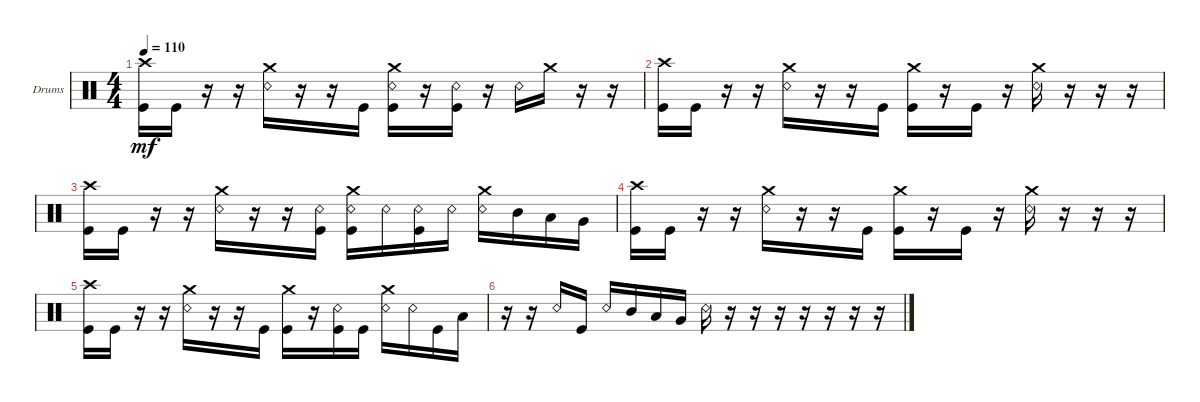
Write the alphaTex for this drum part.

\defaultSystemsLayout 4
\bracketExtendMode groupsimilarinstruments
\firstSystemTrackNameOrientation horizontal
\otherSystemsTrackNameOrientation horizontal
\track ("Drumkit" "Drums") {instrument percussion}
\staff {score}
\articulation defaults
\ts (4 4)
\tempo 110
\clef neutral
\ks c
("Kick (hit)" "Crash high (hit)").16{dy mf} "Kick (hit)".16 r.16 r.16 ("Snare (rim shot)" "Crash medium (hit)").16 r.16 r.16 "Kick (hit)".16 ("Kick (hit)" "Crash medium (hit)" "Snare (rim shot)").16 r.16 ("Kick (hit)" "Snare (rim shot)").16 r.16 "Snare (rim shot)".16 "Crash medium (hit)".16 r.16 r.16 |
("Kick (hit)" "Crash high (hit)").16 "Kick (hit)".16 r.16 r.16 ("Snare (rim shot)" "Crash medium (hit)").16 r.16 r.16 "Kick (hit)".16 ("Kick (hit)" "Crash medium (hit)").16 r.16 "Kick (hit)".16 r.16 ("Snare (rim shot)" "Crash medium (hit)").16 r.16 r.16 r.16 |
("Kick (hit)" "Crash high (hit)").16 "Kick (hit)".16 r.16 r.16 ("Snare (rim shot)" "Crash medium (hit)").16 r.16 r.16 ("Kick (hit)" "Snare (rim shot)").16 ("Kick (hit)" "Crash medium (hit)" "Snare (rim shot)").16 "Snare (rim shot)".16 ("Kick (hit)" "Snare (rim shot)").16 "Snare (rim shot)".16 ("Snare (rim shot)" "Crash medium (hit)").16 "Mid Tom (hit)".16 "Low Tom (hit)".16 "Very Low Tom (hit)".16 |
("Kick (hit)" "Crash high (hit)").16 "Kick (hit)".16 r.16 r.16 ("Snare (rim shot)" "Crash medium (hit)").16 r.16 r.16 "Kick (hit)".16 ("Kick (hit)" "Crash medium (hit)").16 r.16 "Kick (hit)".16 r.16 ("Snare (rim shot)" "Crash medium (hit)").16 r.16 r.16 r.16 |
("Kick (hit)" "Crash high (hit)").16 "Kick (hit)".16 r.16 r.16 ("Snare (rim shot)" "Crash medium (hit)").16 r.16 r.16 "Kick (hit)".16 ("Kick (hit)" "Crash medium (hit)").16 r.16 ("Kick (hit)" "Snare (rim shot)").16 "Kick (hit)".16 ("Snare (rim shot)" "Crash medium (hit)").16 "Snare (rim shot)".16 "Kick (hit)".16 "Low Tom (hit)".16 |
r.16 r.16 "Snare (rim shot)".16 "Kick (hit)".16 "Snare (rim shot)".16 "Mid Tom (hit)".16 "Low Tom (hit)".16 "Very Low Tom (hit)".16 "Snare (rim shot)".16 r.16 r.16 r.16 r.16 r.16 r.16 r.16
